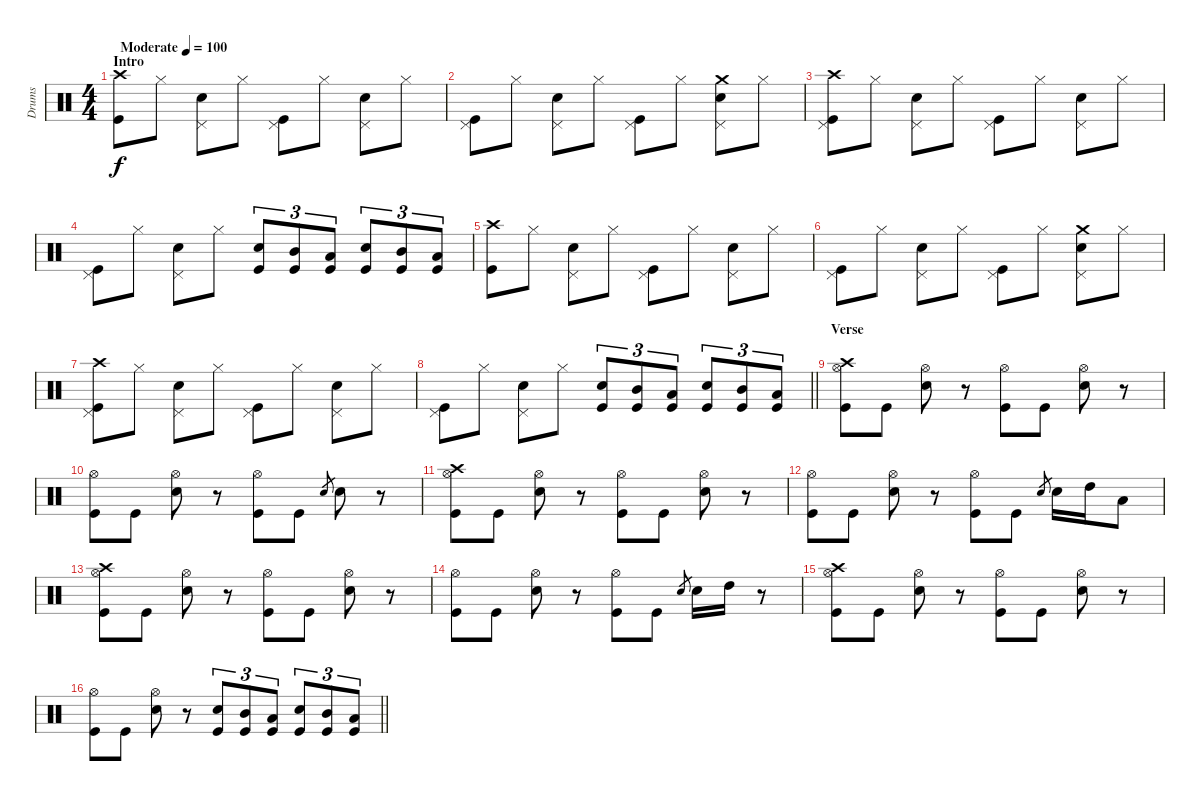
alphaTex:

\track ("Drums" "Drums") {instrument percussion}
\staff {score}
\articulation defaults
\ts (4 4)
\section ("" "Intro")
\tempo (100 "Moderate")
\clef neutral
\ks c
("Crash high (hit)" "Kick (hit)").8{dy f} "Hi-Hat (closed)".8 ("Pedal Hi-Hat (hit)" "Electric Snare (hit)").8 "Hi-Hat (closed)".8 ("Pedal Hi-Hat (hit)" "Kick (hit)").8 "Hi-Hat (closed)".8 ("Pedal Hi-Hat (hit)" "Electric Snare (hit)").8 "Hi-Hat (closed)".8 |
("Pedal Hi-Hat (hit)" "Kick (hit)").8 "Hi-Hat (closed)".8 ("Pedal Hi-Hat (hit)" "Electric Snare (hit)").8 "Hi-Hat (closed)".8 ("Pedal Hi-Hat (hit)" "Kick (hit)").8 "Hi-Hat (closed)".8 ("Crash medium (hit)" "Pedal Hi-Hat (hit)" "Electric Snare (hit)").8 "Hi-Hat (closed)".8 |
("Crash high (hit)" "Pedal Hi-Hat (hit)" "Kick (hit)").8 "Hi-Hat (closed)".8 ("Pedal Hi-Hat (hit)" "Electric Snare (hit)").8 "Hi-Hat (closed)".8 ("Pedal Hi-Hat (hit)" "Kick (hit)").8 "Hi-Hat (closed)".8 ("Pedal Hi-Hat (hit)" "Electric Snare (hit)").8 "Hi-Hat (closed)".8 |
("Pedal Hi-Hat (hit)" "Kick (hit)").8 "Hi-Hat (closed)".8 ("Pedal Hi-Hat (hit)" "Electric Snare (hit)").8 "Hi-Hat (closed)".8 ("Electric Snare (hit)" "Kick (hit)").8{tu (3 2)} ("Mid Tom (hit)" "Kick (hit)").8{tu (3 2)} ("Low Tom (hit)" "Kick (hit)").8{tu (3 2)} ("Electric Snare (hit)" "Kick (hit)").8{tu (3 2)} ("Mid Tom (hit)" "Kick (hit)").8{tu (3 2)} ("Low Tom (hit)" "Kick (hit)").8{tu (3 2)} |
("Crash high (hit)" "Kick (hit)").8 "Hi-Hat (closed)".8 ("Pedal Hi-Hat (hit)" "Electric Snare (hit)").8 "Hi-Hat (closed)".8 ("Pedal Hi-Hat (hit)" "Kick (hit)").8 "Hi-Hat (closed)".8 ("Pedal Hi-Hat (hit)" "Electric Snare (hit)").8 "Hi-Hat (closed)".8 |
("Pedal Hi-Hat (hit)" "Kick (hit)").8 "Hi-Hat (closed)".8 ("Pedal Hi-Hat (hit)" "Electric Snare (hit)").8 "Hi-Hat (closed)".8 ("Pedal Hi-Hat (hit)" "Kick (hit)").8 "Hi-Hat (closed)".8 ("Crash medium (hit)" "Pedal Hi-Hat (hit)" "Electric Snare (hit)").8 "Hi-Hat (closed)".8 |
("Crash high (hit)" "Pedal Hi-Hat (hit)" "Kick (hit)").8 "Hi-Hat (closed)".8 ("Pedal Hi-Hat (hit)" "Electric Snare (hit)").8 "Hi-Hat (closed)".8 ("Pedal Hi-Hat (hit)" "Kick (hit)").8 "Hi-Hat (closed)".8 ("Pedal Hi-Hat (hit)" "Electric Snare (hit)").8 "Hi-Hat (closed)".8 |
\barLineRight lightlight
("Pedal Hi-Hat (hit)" "Kick (hit)").8 "Hi-Hat (closed)".8 ("Pedal Hi-Hat (hit)" "Electric Snare (hit)").8 "Hi-Hat (closed)".8 ("Electric Snare (hit)" "Kick (hit)").8{tu (3 2)} ("Mid Tom (hit)" "Kick (hit)").8{tu (3 2)} ("Low Tom (hit)" "Kick (hit)").8{tu (3 2)} ("Electric Snare (hit)" "Kick (hit)").8{tu (3 2)} ("Mid Tom (hit)" "Kick (hit)").8{tu (3 2)} ("Low Tom (hit)" "Kick (hit)").8{tu (3 2)} |
\section ("" "Verse")
("Crash high (hit)" "Hi-Hat (open)" "Kick (hit)").8 "Kick (hit)".8 ("Hi-Hat (open)" "Electric Snare (hit)").8 r.8 ("Hi-Hat (open)" "Kick (hit)").8 "Kick (hit)".8 ("Hi-Hat (open)" "Electric Snare (hit)").8 r.8 |
("Hi-Hat (open)" "Kick (hit)").8 "Kick (hit)".8 ("Hi-Hat (open)" "Electric Snare (hit)").8 r.8 ("Hi-Hat (open)" "Kick (hit)").8 "Kick (hit)".8 "Electric Snare (hit)".8{gr} "Electric Snare (hit)".8 r.8 |
("Crash high (hit)" "Hi-Hat (open)" "Kick (hit)").8 "Kick (hit)".8 ("Hi-Hat (open)" "Electric Snare (hit)").8 r.8 ("Hi-Hat (open)" "Kick (hit)").8 "Kick (hit)".8 ("Hi-Hat (open)" "Electric Snare (hit)").8 r.8 |
("Hi-Hat (open)" "Kick (hit)").8 "Kick (hit)".8 ("Hi-Hat (open)" "Electric Snare (hit)").8 r.8 ("Hi-Hat (open)" "Kick (hit)").8 "Kick (hit)".8 "Electric Snare (hit)".8{gr} "Electric Snare (hit)".16 "High Tom (hit)".16 "Low Tom (hit)".8 |
("Crash high (hit)" "Hi-Hat (open)" "Kick (hit)").8 "Kick (hit)".8 ("Hi-Hat (open)" "Electric Snare (hit)").8 r.8 ("Hi-Hat (open)" "Kick (hit)").8 "Kick (hit)".8 ("Hi-Hat (open)" "Electric Snare (hit)").8 r.8 |
("Hi-Hat (open)" "Kick (hit)").8 "Kick (hit)".8 ("Hi-Hat (open)" "Electric Snare (hit)").8 r.8 ("Hi-Hat (open)" "Kick (hit)").8 "Kick (hit)".8 "Electric Snare (hit)".8{gr} "Electric Snare (hit)".16 "High Tom (hit)".16 r.8 |
("Crash high (hit)" "Hi-Hat (open)" "Kick (hit)").8 "Kick (hit)".8 ("Hi-Hat (open)" "Electric Snare (hit)").8 r.8 ("Hi-Hat (open)" "Kick (hit)").8 "Kick (hit)".8 ("Hi-Hat (open)" "Electric Snare (hit)").8 r.8 |
\barLineRight lightlight
("Hi-Hat (open)" "Kick (hit)").8 "Kick (hit)".8 ("Hi-Hat (open)" "Electric Snare (hit)").8 r.8 ("Electric Snare (hit)" "Kick (hit)").8{tu (3 2)} ("Mid Tom (hit)" "Kick (hit)").8{tu (3 2)} ("Low Tom (hit)" "Kick (hit)").8{tu (3 2)} ("Electric Snare (hit)" "Kick (hit)").8{tu (3 2)} ("Mid Tom (hit)" "Kick (hit)").8{tu (3 2)} ("Low Tom (hit)" "Kick (hit)").8{tu (3 2)}
